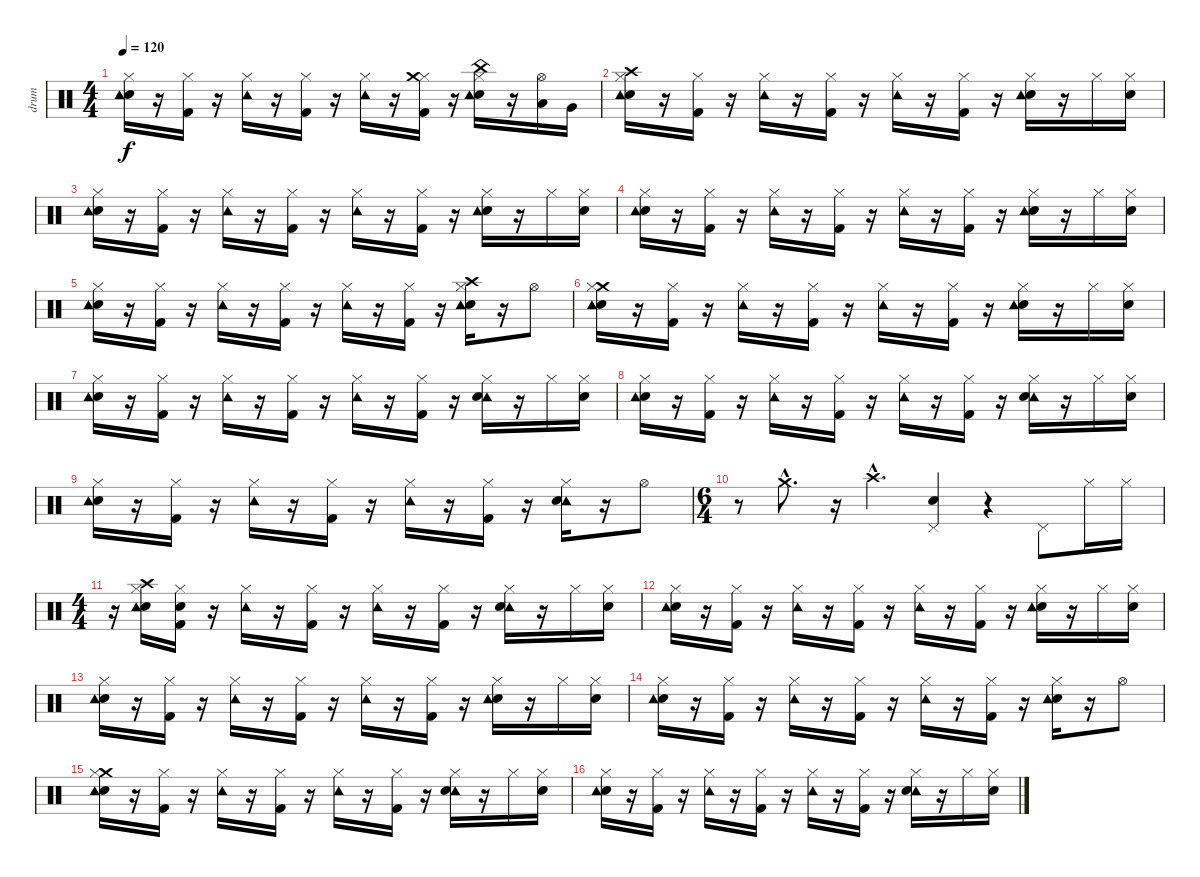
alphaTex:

\track ("drum" "drum") {instrument percussion}
\staff {score}
\articulation defaults
\ts (4 4)
\tempo 120
\clef neutral
\ks c
("Snare (hit)" "Tambourine (hit)" "Hi-Hat (closed)").16{dy f} r.16 ("Hi-Hat (closed)" "Kick (hit) 2").16 r.16 ("Hi-Hat (closed)" "Tambourine (hit)").16 r.16 ("Hi-Hat (closed)" "Kick (hit) 2").16 r.16 ("Hi-Hat (closed)" "Tambourine (hit)").16 r.16 ("Hi-Hat (closed)" "Kick (hit) 2" "Crash medium (hit)").16 r.16 ("China (hit)" "Hi-Hat (closed)" "Snare (hit) 2" "Tambourine (hit)").16 r.16 ("Hi-Hat (open)" "Low Tom (hit)").16 "Very Low Tom (hit)".16 |
("Snare (hit)" "Hi-Hat (closed)" "Crash high (hit)" "Tambourine (hit)").16 r.16 ("Hi-Hat (closed)" "Kick (hit) 2").16 r.16 ("Tambourine (hit)" "Hi-Hat (closed)").16 r.16 ("Hi-Hat (closed)" "Kick (hit) 2").16 r.16 ("Tambourine (hit)" "Hi-Hat (closed)").16 r.16 ("Hi-Hat (closed)" "Kick (hit) 2").16 r.16 ("Snare (hit) 2" "Tambourine (hit)" "Hi-Hat (closed)").16 r.16 "Hi-Hat (closed)".16 ("Snare (hit)" "Hi-Hat (closed)").16 |
("Snare (hit)" "Hi-Hat (closed)" "Tambourine (hit)").16 r.16 ("Kick (hit) 2" "Hi-Hat (closed)").16 r.16 ("Tambourine (hit)" "Hi-Hat (closed)").16 r.16 ("Hi-Hat (closed)" "Kick (hit) 2").16 r.16 ("Hi-Hat (closed)" "Tambourine (hit)").16 r.16 ("Kick (hit) 2" "Hi-Hat (closed)").16 r.16 ("Snare (hit) 2" "Tambourine (hit)" "Hi-Hat (closed)").16 r.16 "Hi-Hat (closed)".16 ("Snare (hit)" "Hi-Hat (closed)").16 |
("Snare (hit)" "Hi-Hat (closed)" "Tambourine (hit)").16 r.16 ("Kick (hit) 2" "Hi-Hat (closed)").16 r.16 ("Tambourine (hit)" "Hi-Hat (closed)").16 r.16 ("Kick (hit) 2" "Hi-Hat (closed)").16 r.16 ("Tambourine (hit)" "Hi-Hat (closed)").16 r.16 ("Kick (hit) 2" "Hi-Hat (closed)").16 r.16 ("Hi-Hat (closed)" "Snare (hit) 2" "Tambourine (hit)").16 r.16 "Hi-Hat (closed)".16 ("Snare (hit)" "Hi-Hat (closed)").16 |
("Snare (hit)" "Tambourine (hit)" "Hi-Hat (closed)").16 r.16 ("Hi-Hat (closed)" "Kick (hit) 2").16 r.16 ("Hi-Hat (closed)" "Tambourine (hit)").16 r.16 ("Hi-Hat (closed)" "Kick (hit) 2").16 r.16 ("Tambourine (hit)" "Hi-Hat (closed)").16 r.16 ("Hi-Hat (closed)" "Kick (hit) 2").16 r.16 ("Hi-Hat (closed)" "Crash high (hit)" "Snare (hit) 2" "Tambourine (hit)").16 r.16 "Hi-Hat (open)".8 |
("Snare (hit)" "Crash medium (hit)" "Tambourine (hit)" "Hi-Hat (closed)").16 r.16 ("Hi-Hat (closed)" "Kick (hit) 2").16 r.16 ("Hi-Hat (closed)" "Tambourine (hit)").16 r.16 ("Hi-Hat (closed)" "Kick (hit) 2").16 r.16 ("Hi-Hat (closed)" "Tambourine (hit)").16 r.16 ("Kick (hit) 2" "Hi-Hat (closed)").16 r.16 ("Snare (hit) 2" "Tambourine (hit)" "Hi-Hat (closed)").16 r.16 "Hi-Hat (closed)".16 ("Snare (hit)" "Hi-Hat (closed)").16 |
("Snare (hit)" "Tambourine (hit)" "Hi-Hat (closed)").16 r.16 ("Kick (hit) 2" "Hi-Hat (closed)").16 r.16 ("Hi-Hat (closed)" "Tambourine (hit)").16 r.16 ("Hi-Hat (closed)" "Kick (hit) 2").16 r.16 ("Hi-Hat (closed)" "Tambourine (hit)").16 r.16 ("Hi-Hat (closed)" "Kick (hit) 2").16 r.16 ("Tambourine (hit)" "Snare (hit) 2" "Hi-Hat (closed)").16 r.16 "Hi-Hat (closed)".16 ("Snare (hit)" "Hi-Hat (closed)").16 |
("Snare (hit)" "Tambourine (hit)" "Hi-Hat (closed)").16 r.16 ("Kick (hit) 2" "Hi-Hat (closed)").16 r.16 ("Tambourine (hit)" "Hi-Hat (closed)").16 r.16 ("Hi-Hat (closed)" "Kick (hit) 2").16 r.16 ("Hi-Hat (closed)" "Tambourine (hit)").16 r.16 ("Kick (hit) 2" "Hi-Hat (closed)").16 r.16 ("Hi-Hat (closed)" "Tambourine (hit)" "Snare (hit) 2").16 r.16 "Hi-Hat (closed)".16 ("Snare (hit)" "Hi-Hat (closed)").16 |
("Snare (hit)" "Tambourine (hit)" "Hi-Hat (closed)").16 r.16 ("Hi-Hat (closed)" "Kick (hit) 2").16 r.16 ("Tambourine (hit)" "Hi-Hat (closed)").16 r.16 ("Kick (hit) 2" "Hi-Hat (closed)").16 r.16 ("Hi-Hat (closed)" "Tambourine (hit)").16 r.16 ("Kick (hit) 2" "Hi-Hat (closed)").16 r.16 ("Tambourine (hit)" "Snare (hit) 2" "Hi-Hat (closed)").16 r.16 "Hi-Hat (open)".8 |
\ts (6 4)
r.8 "Crash medium (hit)"{hac}.8{d} r.16 "Crash high (hit)"{hac}.4{d} ("Snare (hit)" "Pedal Hi-Hat (hit)").4 r.4 "Pedal Hi-Hat (hit)".8 "Hi-Hat (closed)".16 "Hi-Hat (closed)".16 |
\ts (4 4)
r.16 ("Snare (hit)" "Hi-Hat (closed)" "Crash high (hit)" "Tambourine (hit)").16 ("Snare (hit)" "Kick (hit) 2" "Hi-Hat (closed)").16 r.16 ("Tambourine (hit)" "Hi-Hat (closed)").16 r.16 ("Hi-Hat (closed)" "Kick (hit) 2").16 r.16 ("Tambourine (hit)" "Hi-Hat (closed)").16 r.16 ("Hi-Hat (closed)" "Kick (hit) 2").16 r.16 ("Tambourine (hit)" "Snare (hit) 2" "Hi-Hat (closed)").16 r.16 "Hi-Hat (closed)".16 ("Snare (hit)" "Hi-Hat (closed)").16 |
("Snare (hit)" "Tambourine (hit)" "Hi-Hat (closed)").16 r.16 ("Hi-Hat (closed)" "Kick (hit) 2").16 r.16 ("Hi-Hat (closed)" "Tambourine (hit)").16 r.16 ("Hi-Hat (closed)" "Kick (hit) 2").16 r.16 ("Tambourine (hit)" "Hi-Hat (closed)").16 r.16 ("Kick (hit) 2" "Hi-Hat (closed)").16 r.16 ("Snare (hit) 2" "Hi-Hat (closed)" "Tambourine (hit)").16 r.16 "Hi-Hat (closed)".16 ("Snare (hit)" "Hi-Hat (closed)").16 |
("Snare (hit)" "Tambourine (hit)" "Hi-Hat (closed)").16 r.16 ("Hi-Hat (closed)" "Kick (hit) 2").16 r.16 ("Hi-Hat (closed)" "Tambourine (hit)").16 r.16 ("Hi-Hat (closed)" "Kick (hit) 2").16 r.16 ("Tambourine (hit)" "Hi-Hat (closed)").16 r.16 ("Kick (hit) 2" "Hi-Hat (closed)").16 r.16 ("Snare (hit) 2" "Hi-Hat (closed)" "Tambourine (hit)").16 r.16 "Hi-Hat (closed)".16 ("Snare (hit)" "Hi-Hat (closed)").16 |
("Snare (hit)" "Tambourine (hit)" "Hi-Hat (closed)").16 r.16 ("Kick (hit) 2" "Hi-Hat (closed)").16 r.16 ("Tambourine (hit)" "Hi-Hat (closed)").16 r.16 ("Kick (hit) 2" "Hi-Hat (closed)").16 r.16 ("Tambourine (hit)" "Hi-Hat (closed)").16 r.16 ("Kick (hit) 2" "Hi-Hat (closed)").16 r.16 ("Snare (hit) 2" "Hi-Hat (closed)" "Tambourine (hit)").16 r.16 "Hi-Hat (open)".8 |
("Snare (hit)" "Crash medium (hit)" "Tambourine (hit)" "Hi-Hat (closed)").16 r.16 ("Kick (hit) 2" "Hi-Hat (closed)").16 r.16 ("Tambourine (hit)" "Hi-Hat (closed)").16 r.16 ("Hi-Hat (closed)" "Kick (hit) 2").16 r.16 ("Tambourine (hit)" "Hi-Hat (closed)").16 r.16 ("Kick (hit) 2" "Hi-Hat (closed)").16 r.16 ("Hi-Hat (closed)" "Tambourine (hit)" "Snare (hit) 2").16 r.16 "Hi-Hat (closed)".16 ("Snare (hit)" "Hi-Hat (closed)").16 |
("Snare (hit)" "Hi-Hat (closed)" "Tambourine (hit)").16 r.16 ("Hi-Hat (closed)" "Kick (hit) 2").16 r.16 ("Tambourine (hit)" "Hi-Hat (closed)").16 r.16 ("Kick (hit) 2" "Hi-Hat (closed)").16 r.16 ("Tambourine (hit)" "Hi-Hat (closed)").16 r.16 ("Kick (hit) 2" "Hi-Hat (closed)").16 r.16 ("Tambourine (hit)" "Snare (hit) 2" "Hi-Hat (closed)").16 r.16 "Hi-Hat (closed)".16 ("Snare (hit)" "Hi-Hat (closed)").16
